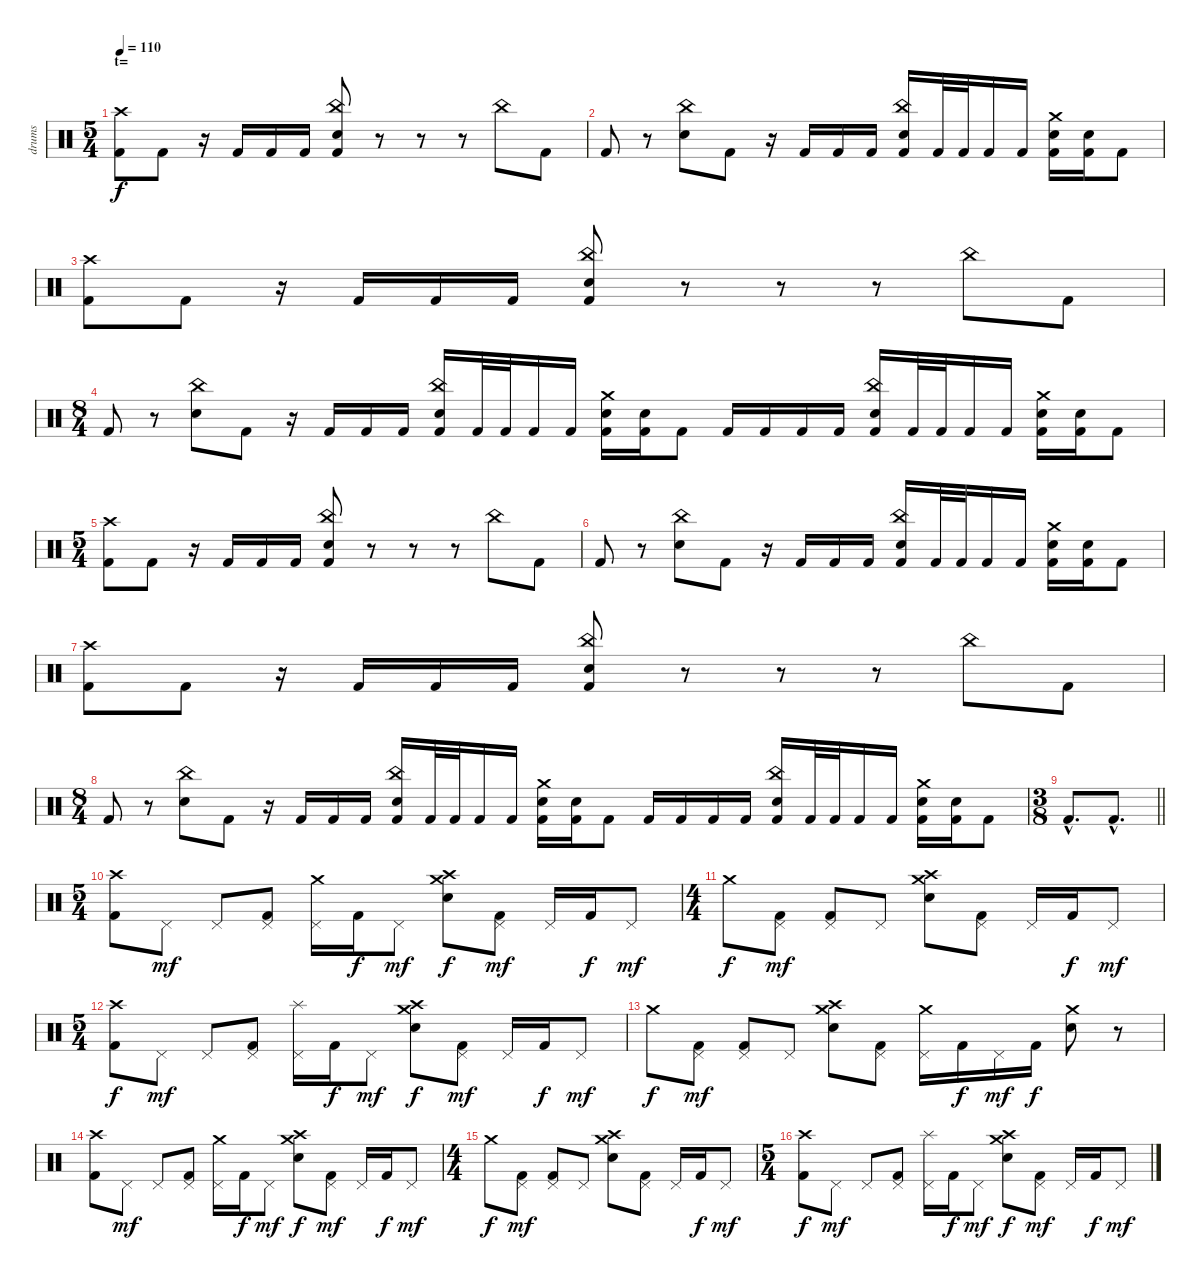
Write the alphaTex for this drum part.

\track ("drums" "drums") {instrument percussion}
\staff {score}
\articulation defaults
\ts (5 4)
\section ("" "t=")
\tempo 110
\clef neutral
\ks c
("Crash high (hit)" "Kick (hit) 2").8{dy f} "Kick (hit) 2".8 r.16 "Kick (hit) 2".16 "Kick (hit) 2".16 "Kick (hit) 2".16 ("China (hit)" "Electric Snare (hit)" "Kick (hit) 2").8 r.8 r.8 r.8 "China (hit)".8 "Kick (hit) 2".8 |
"Kick (hit) 2".8 r.8 ("China (hit)" "Electric Snare (hit)").8 "Kick (hit) 2".8 r.16 "Kick (hit) 2".16 "Kick (hit) 2".16 "Kick (hit) 2".16 ("China (hit)" "Electric Snare (hit)" "Kick (hit) 2").16 "Kick (hit) 2".32 "Kick (hit) 2".32 "Kick (hit) 2".16 "Kick (hit) 2".16 ("Crash medium (hit)" "Electric Snare (hit)" "Kick (hit) 2").16 ("Electric Snare (hit)" "Kick (hit) 2").16 "Kick (hit) 2".8 |
("Crash high (hit)" "Kick (hit) 2").8 "Kick (hit) 2".8 r.16 "Kick (hit) 2".16 "Kick (hit) 2".16 "Kick (hit) 2".16 ("China (hit)" "Electric Snare (hit)" "Kick (hit) 2").8 r.8 r.8 r.8 "China (hit)".8 "Kick (hit) 2".8 |
\ts (8 4)
"Kick (hit) 2".8 r.8 ("China (hit)" "Electric Snare (hit)").8 "Kick (hit) 2".8 r.16 "Kick (hit) 2".16 "Kick (hit) 2".16 "Kick (hit) 2".16 ("China (hit)" "Electric Snare (hit)" "Kick (hit) 2").16 "Kick (hit) 2".32 "Kick (hit) 2".32 "Kick (hit) 2".16 "Kick (hit) 2".16 ("Crash medium (hit)" "Electric Snare (hit)" "Kick (hit) 2").16 ("Electric Snare (hit)" "Kick (hit) 2").16 "Kick (hit) 2".8 "Kick (hit) 2".16 "Kick (hit) 2".16 "Kick (hit) 2".16 "Kick (hit) 2".16 ("China (hit)" "Electric Snare (hit)" "Kick (hit) 2").16 "Kick (hit) 2".32 "Kick (hit) 2".32 "Kick (hit) 2".16 "Kick (hit) 2".16 ("Crash medium (hit)" "Electric Snare (hit)" "Kick (hit) 2").16 ("Electric Snare (hit)" "Kick (hit) 2").16 "Kick (hit) 2".8 |
\ts (5 4)
("Crash high (hit)" "Kick (hit) 2").8 "Kick (hit) 2".8 r.16 "Kick (hit) 2".16 "Kick (hit) 2".16 "Kick (hit) 2".16 ("China (hit)" "Electric Snare (hit)" "Kick (hit) 2").8 r.8 r.8 r.8 "China (hit)".8 "Kick (hit) 2".8 |
"Kick (hit) 2".8 r.8 ("China (hit)" "Electric Snare (hit)").8 "Kick (hit) 2".8 r.16 "Kick (hit) 2".16 "Kick (hit) 2".16 "Kick (hit) 2".16 ("China (hit)" "Electric Snare (hit)" "Kick (hit) 2").16 "Kick (hit) 2".32 "Kick (hit) 2".32 "Kick (hit) 2".16 "Kick (hit) 2".16 ("Crash medium (hit)" "Electric Snare (hit)" "Kick (hit) 2").16 ("Electric Snare (hit)" "Kick (hit) 2").16 "Kick (hit) 2".8 |
("Crash high (hit)" "Kick (hit) 2").8 "Kick (hit) 2".8 r.16 "Kick (hit) 2".16 "Kick (hit) 2".16 "Kick (hit) 2".16 ("China (hit)" "Electric Snare (hit)" "Kick (hit) 2").8 r.8 r.8 r.8 "China (hit)".8 "Kick (hit) 2".8 |
\ts (8 4)
"Kick (hit) 2".8 r.8 ("China (hit)" "Electric Snare (hit)").8 "Kick (hit) 2".8 r.16 "Kick (hit) 2".16 "Kick (hit) 2".16 "Kick (hit) 2".16 ("China (hit)" "Electric Snare (hit)" "Kick (hit) 2").16 "Kick (hit) 2".32 "Kick (hit) 2".32 "Kick (hit) 2".16 "Kick (hit) 2".16 ("Crash medium (hit)" "Electric Snare (hit)" "Kick (hit) 2").16 ("Electric Snare (hit)" "Kick (hit) 2").16 "Kick (hit) 2".8 "Kick (hit) 2".16 "Kick (hit) 2".16 "Kick (hit) 2".16 "Kick (hit) 2".16 ("China (hit)" "Electric Snare (hit)" "Kick (hit) 2").16 "Kick (hit) 2".32 "Kick (hit) 2".32 "Kick (hit) 2".16 "Kick (hit) 2".16 ("Crash medium (hit)" "Electric Snare (hit)" "Kick (hit) 2").16 ("Electric Snare (hit)" "Kick (hit) 2").16 "Kick (hit) 2".8 |
\ts (3 8)
\section ("" "")
\barLineRight lightlight "Kick (hit) 2"{hac}.8{d} "Kick (hit) 2"{hac}.8{d}
|
\ts (5 4)
\section ("" "")
("Crash high (hit)" "Kick (hit) 2").8 "Pedal Hi-Hat (hit)".8{dy mf} "Pedal Hi-Hat (hit)".8 ("Pedal Hi-Hat (hit)" "Kick (hit) 2").8 ("Crash medium (hit)" "Pedal Hi-Hat (hit)").16 "Kick (hit) 2".16{dy f} "Pedal Hi-Hat (hit)".8{dy mf} ("Crash medium (hit)" "Crash high (hit)" "Electric Snare (hit)").8{dy f} ("Pedal Hi-Hat (hit)" "Kick (hit) 2").8{dy mf} "Pedal Hi-Hat (hit)".16 "Kick (hit) 2".16{dy f} "Pedal Hi-Hat (hit)".8{dy mf} |
\ts (4 4)
"Crash medium (hit)".8{dy f} ("Pedal Hi-Hat (hit)" "Kick (hit) 2").8{dy mf} ("Pedal Hi-Hat (hit)" "Kick (hit) 2").8 "Pedal Hi-Hat (hit)".8 ("Crash high (hit)" "Crash medium (hit)" "Electric Snare (hit)").8 ("Pedal Hi-Hat (hit)" "Kick (hit) 2").8 "Pedal Hi-Hat (hit)".16 "Kick (hit) 2".16{dy f} "Pedal Hi-Hat (hit)".8{dy mf} |
\ts (5 4)
("Crash high (hit)" "Kick (hit) 2").8{dy f} "Pedal Hi-Hat (hit)".8{dy mf} "Pedal Hi-Hat (hit)".8 ("Pedal Hi-Hat (hit)" "Kick (hit) 2").8 ("Splash (hit)" "Pedal Hi-Hat (hit)").16 "Kick (hit) 2".16{dy f} "Pedal Hi-Hat (hit)".8{dy mf} ("Crash medium (hit)" "Crash high (hit)" "Electric Snare (hit)").8{dy f} ("Pedal Hi-Hat (hit)" "Kick (hit) 2").8{dy mf} "Pedal Hi-Hat (hit)".16 "Kick (hit) 2".16{dy f} "Pedal Hi-Hat (hit)".8{dy mf} |
"Crash medium (hit)".8{dy f} ("Pedal Hi-Hat (hit)" "Kick (hit) 2").8{dy mf} ("Pedal Hi-Hat (hit)" "Kick (hit) 2").8 "Pedal Hi-Hat (hit)".8 ("Crash high (hit)" "Crash medium (hit)" "Electric Snare (hit)").8 ("Pedal Hi-Hat (hit)" "Kick (hit) 2").8 ("Crash medium (hit)" "Pedal Hi-Hat (hit)").16 "Kick (hit) 2".16{dy f} "Pedal Hi-Hat (hit)".16{dy mf} "Kick (hit) 2".16{dy f} ("Crash medium (hit)" "Electric Snare (hit)").8 r.8 |
("Crash high (hit)" "Kick (hit) 2").8 "Pedal Hi-Hat (hit)".8{dy mf} "Pedal Hi-Hat (hit)".8 ("Pedal Hi-Hat (hit)" "Kick (hit) 2").8 ("Crash medium (hit)" "Pedal Hi-Hat (hit)").16 "Kick (hit) 2".16{dy f} "Pedal Hi-Hat (hit)".8{dy mf} ("Crash medium (hit)" "Crash high (hit)" "Electric Snare (hit)").8{dy f} ("Pedal Hi-Hat (hit)" "Kick (hit) 2").8{dy mf} "Pedal Hi-Hat (hit)".16 "Kick (hit) 2".16{dy f} "Pedal Hi-Hat (hit)".8{dy mf} |
\ts (4 4)
"Crash medium (hit)".8{dy f} ("Pedal Hi-Hat (hit)" "Kick (hit) 2").8{dy mf} ("Pedal Hi-Hat (hit)" "Kick (hit) 2").8 "Pedal Hi-Hat (hit)".8 ("Crash high (hit)" "Crash medium (hit)" "Electric Snare (hit)").8 ("Pedal Hi-Hat (hit)" "Kick (hit) 2").8 "Pedal Hi-Hat (hit)".16 "Kick (hit) 2".16{dy f} "Pedal Hi-Hat (hit)".8{dy mf} |
\ts (5 4)
("Crash high (hit)" "Kick (hit) 2").8{dy f} "Pedal Hi-Hat (hit)".8{dy mf} "Pedal Hi-Hat (hit)".8 ("Pedal Hi-Hat (hit)" "Kick (hit) 2").8 ("Splash (hit)" "Pedal Hi-Hat (hit)").16 "Kick (hit) 2".16{dy f} "Pedal Hi-Hat (hit)".8{dy mf} ("Crash medium (hit)" "Crash high (hit)" "Electric Snare (hit)").8{dy f} ("Pedal Hi-Hat (hit)" "Kick (hit) 2").8{dy mf} "Pedal Hi-Hat (hit)".16 "Kick (hit) 2".16{dy f} "Pedal Hi-Hat (hit)".8{dy mf}
